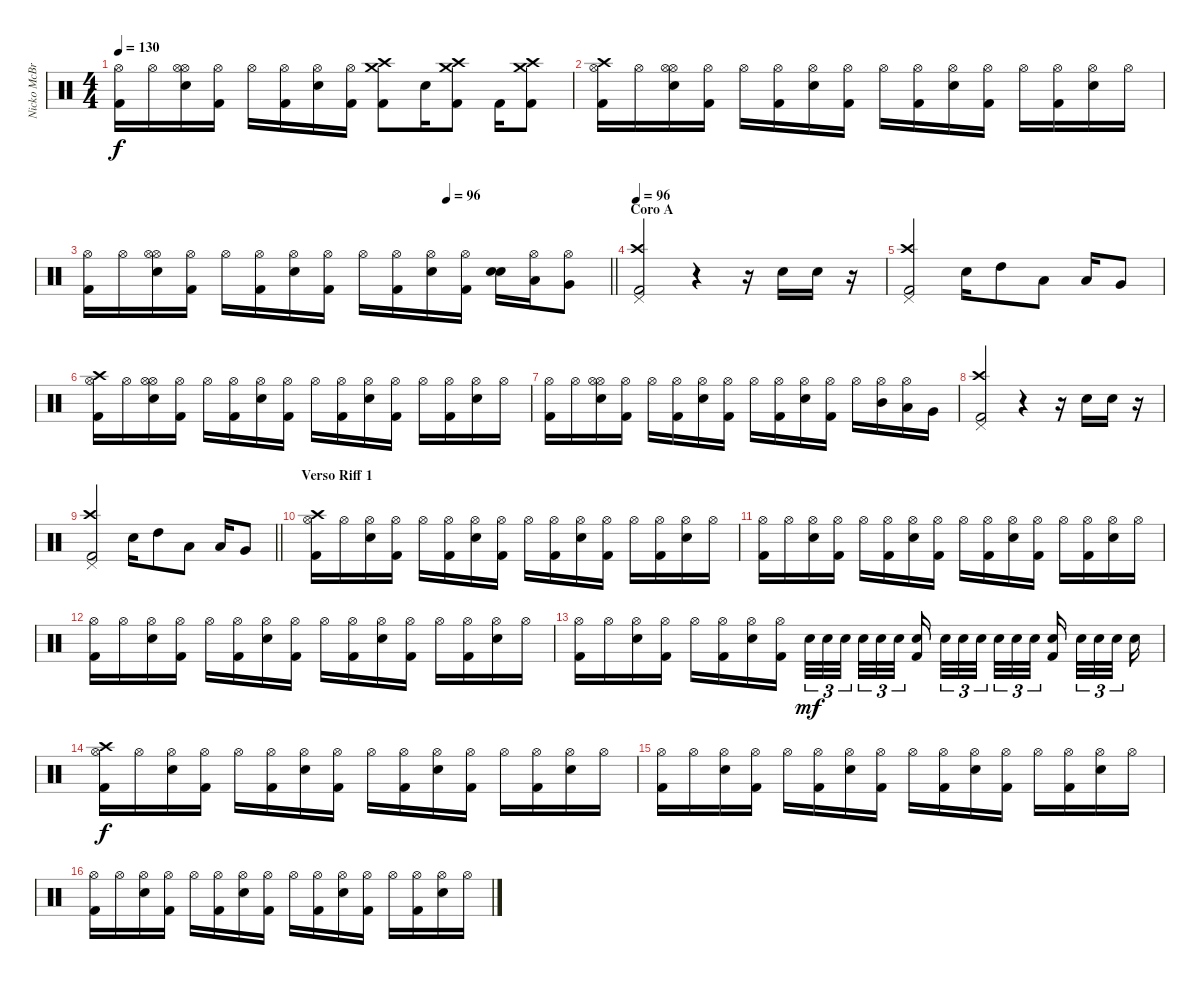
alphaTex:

\track ("Nicko McBrain" "Nicko McBr") {instrument percussion}
\staff {score}
\articulation defaults
\ts (4 4)
\tempo 130
\clef neutral
\ks c
("Kick (hit) 2" "Hi-Hat (open)").16{dy f} "Hi-Hat (open)".16 ("Snare (hit) 2" "Hi-Hat (open)" "Hi-Hat (open)").16 ("Kick (hit) 2" "Hi-Hat (open)").16 "Hi-Hat (open)".16 ("Kick (hit) 2" "Hi-Hat (open)").16 ("Snare (hit) 2" "Hi-Hat (open)").16 ("Kick (hit) 2" "Hi-Hat (open)").16 ("Crash medium (hit)" "Crash high (hit)" "Kick (hit) 2").8 "Snare (hit) 2".16 ("Crash medium (hit)" "Crash high (hit)" "Kick (hit) 2").8 "Kick (hit) 2".16 ("Crash medium (hit)" "Crash high (hit)" "Kick (hit) 2").8 |
("Kick (hit) 2" "Hi-Hat (open)" "Crash high (hit)").16 "Hi-Hat (open)".16 ("Snare (hit) 2" "Hi-Hat (open)" "Hi-Hat (open)").16 ("Kick (hit) 2" "Hi-Hat (open)").16 "Hi-Hat (open)".16 ("Kick (hit) 2" "Hi-Hat (open)").16 ("Snare (hit) 2" "Hi-Hat (open)").16 ("Kick (hit) 2" "Hi-Hat (open)").16 "Hi-Hat (open)".16 ("Kick (hit) 2" "Hi-Hat (open)").16 ("Snare (hit) 2" "Hi-Hat (open)").16 ("Kick (hit) 2" "Hi-Hat (open)").16 "Hi-Hat (open)".16 ("Kick (hit) 2" "Hi-Hat (open)").16 ("Snare (hit) 2" "Hi-Hat (open)").16 "Hi-Hat (open)".16 |
\tempo (96 0.6875)
\barLineRight lightlight
("Kick (hit) 2" "Hi-Hat (open)").16 "Hi-Hat (open)".16 ("Snare (hit) 2" "Hi-Hat (open)" "Hi-Hat (open)").16 ("Kick (hit) 2" "Hi-Hat (open)").16 "Hi-Hat (open)".16 ("Kick (hit) 2" "Hi-Hat (open)").16 ("Snare (hit) 2" "Hi-Hat (open)").16 ("Kick (hit) 2" "Hi-Hat (open)").16 "Hi-Hat (open)".16 ("Kick (hit) 2" "Hi-Hat (open)").16 ("Snare (hit) 2" "Hi-Hat (open)").16 ("Kick (hit) 2" "Hi-Hat (open)").16 ("Snare (hit) 2" "Snare (hit) 2").16 ("Low Tom (hit)" "Hi-Hat (open)").16 ("Very Low Tom (hit)" "Hi-Hat (open)").8 |
\section ("" "Coro A")
\tempo 96
("Kick (hit) 2" "Pedal Hi-Hat (hit)" "Crash high (hit)").2 r.4 r.16 "Snare (hit) 2".16 "Snare (hit) 2".16 r.16 |
("Kick (hit) 2" "Pedal Hi-Hat (hit)" "Crash high (hit)").2 "Snare (hit) 2".16 "High Tom (hit)".8 "Low Tom (hit)".8 "Low Tom (hit)".16 "Very Low Tom (hit)".8 |
("Kick (hit) 2" "Hi-Hat (open)" "Crash high (hit)").16 "Hi-Hat (open)".16 ("Snare (hit) 2" "Hi-Hat (open)" "Hi-Hat (open)").16 ("Kick (hit) 2" "Hi-Hat (open)").16 "Hi-Hat (open)".16 ("Kick (hit) 2" "Hi-Hat (open)").16 ("Snare (hit) 2" "Hi-Hat (open)").16 ("Kick (hit) 2" "Hi-Hat (open)").16 "Hi-Hat (open)".16 ("Kick (hit) 2" "Hi-Hat (open)").16 ("Snare (hit) 2" "Hi-Hat (open)").16 ("Kick (hit) 2" "Hi-Hat (open)").16 "Hi-Hat (open)".16 ("Kick (hit) 2" "Hi-Hat (open)").16 ("Snare (hit) 2" "Hi-Hat (open)").16 "Hi-Hat (open)".16 |
("Kick (hit) 2" "Hi-Hat (open)").16 "Hi-Hat (open)".16 ("Snare (hit) 2" "Hi-Hat (open)" "Hi-Hat (open)").16 ("Kick (hit) 2" "Hi-Hat (open)").16 "Hi-Hat (open)".16 ("Kick (hit) 2" "Hi-Hat (open)").16 ("Snare (hit) 2" "Hi-Hat (open)").16 ("Kick (hit) 2" "Hi-Hat (open)").16 "Hi-Hat (open)".16 ("Kick (hit) 2" "Hi-Hat (open)").16 ("Snare (hit) 2" "Hi-Hat (open)").16 ("Kick (hit) 2" "Hi-Hat (open)").16 "Hi-Hat (open)".16 ("Mid Tom (hit)" "Hi-Hat (open)").16 ("Low Tom (hit)" "Hi-Hat (open)").16 "Very Low Tom (hit)".16 |
("Kick (hit) 2" "Pedal Hi-Hat (hit)" "Crash high (hit)").2 r.4 r.16 "Snare (hit) 2".16 "Snare (hit) 2".16 r.16 |
\barLineRight lightlight
("Kick (hit) 2" "Pedal Hi-Hat (hit)" "Crash high (hit)").2 "Snare (hit) 2".16 "High Tom (hit)".8 "Low Tom (hit)".8 "Low Tom (hit)".16 "Very Low Tom (hit)".8 |
\section ("" "Verso Riff 1")
("Kick (hit) 2" "Hi-Hat (open)" "Crash high (hit)").16 "Hi-Hat (open)".16 ("Snare (hit) 2" "Hi-Hat (open)").16 ("Kick (hit) 2" "Hi-Hat (open)").16 "Hi-Hat (open)".16 ("Kick (hit) 2" "Hi-Hat (open)").16 ("Snare (hit) 2" "Hi-Hat (open)").16 ("Kick (hit) 2" "Hi-Hat (open)").16 "Hi-Hat (open)".16 ("Kick (hit) 2" "Hi-Hat (open)").16 ("Snare (hit) 2" "Hi-Hat (open)").16 ("Kick (hit) 2" "Hi-Hat (open)").16 "Hi-Hat (open)".16 ("Kick (hit) 2" "Hi-Hat (open)").16 ("Snare (hit) 2" "Hi-Hat (open)").16 "Hi-Hat (open)".16 |
("Kick (hit) 2" "Hi-Hat (open)").16 "Hi-Hat (open)".16 ("Snare (hit) 2" "Hi-Hat (open)").16 ("Kick (hit) 2" "Hi-Hat (open)").16 "Hi-Hat (open)".16 ("Kick (hit) 2" "Hi-Hat (open)").16 ("Snare (hit) 2" "Hi-Hat (open)").16 ("Kick (hit) 2" "Hi-Hat (open)").16 "Hi-Hat (open)".16 ("Kick (hit) 2" "Hi-Hat (open)").16 ("Snare (hit) 2" "Hi-Hat (open)").16 ("Kick (hit) 2" "Hi-Hat (open)").16 "Hi-Hat (open)".16 ("Kick (hit) 2" "Hi-Hat (open)").16 ("Snare (hit) 2" "Hi-Hat (open)").16 "Hi-Hat (open)".16 |
("Kick (hit) 2" "Hi-Hat (open)").16 "Hi-Hat (open)".16 ("Snare (hit) 2" "Hi-Hat (open)").16 ("Kick (hit) 2" "Hi-Hat (open)").16 "Hi-Hat (open)".16 ("Kick (hit) 2" "Hi-Hat (open)").16 ("Snare (hit) 2" "Hi-Hat (open)").16 ("Kick (hit) 2" "Hi-Hat (open)").16 "Hi-Hat (open)".16 ("Kick (hit) 2" "Hi-Hat (open)").16 ("Snare (hit) 2" "Hi-Hat (open)").16 ("Kick (hit) 2" "Hi-Hat (open)").16 "Hi-Hat (open)".16 ("Kick (hit) 2" "Hi-Hat (open)").16 ("Snare (hit) 2" "Hi-Hat (open)").16 "Hi-Hat (open)".16 |
("Kick (hit) 2" "Hi-Hat (open)").16 "Hi-Hat (open)".16 ("Snare (hit) 2" "Hi-Hat (open)").16 ("Kick (hit) 2" "Hi-Hat (open)").16 "Hi-Hat (open)".16 ("Kick (hit) 2" "Hi-Hat (open)").16 ("Snare (hit) 2" "Hi-Hat (open)").16 ("Kick (hit) 2" "Hi-Hat (open)").16 "Snare (hit) 2".32{tu (3 2) dy mf} "Snare (hit) 2".32{tu (3 2)} "Snare (hit) 2".32{tu (3 2) beam splitsecondary} "Snare (hit) 2".32{tu (3 2)} "Snare (hit) 2".32{tu (3 2)} "Snare (hit) 2".32{tu (3 2) beam splitsecondary} ("Snare (hit) 2" "Kick (hit) 2").16{beam splitsecondary} "Snare (hit) 2".32{tu (3 2)} "Snare (hit) 2".32{tu (3 2)} "Snare (hit) 2".32{tu (3 2)} "Snare (hit) 2".32{tu (3 2)} "Snare (hit) 2".32{tu (3 2)} "Snare (hit) 2".32{tu (3 2) beam splitsecondary} ("Snare (hit) 2" "Kick (hit) 2").16{beam splitsecondary} "Snare (hit) 2".32{tu (3 2)} "Snare (hit) 2".32{tu (3 2)} "Snare (hit) 2".32{tu (3 2) beam splitsecondary} "Snare (hit) 2".16 |
("Kick (hit) 2" "Hi-Hat (open)" "Crash high (hit)").16{dy f} "Hi-Hat (open)".16 ("Snare (hit) 2" "Hi-Hat (open)").16 ("Kick (hit) 2" "Hi-Hat (open)").16 "Hi-Hat (open)".16 ("Kick (hit) 2" "Hi-Hat (open)").16 ("Snare (hit) 2" "Hi-Hat (open)").16 ("Kick (hit) 2" "Hi-Hat (open)").16 "Hi-Hat (open)".16 ("Kick (hit) 2" "Hi-Hat (open)").16 ("Snare (hit) 2" "Hi-Hat (open)").16 ("Kick (hit) 2" "Hi-Hat (open)").16 "Hi-Hat (open)".16 ("Kick (hit) 2" "Hi-Hat (open)").16 ("Snare (hit) 2" "Hi-Hat (open)").16 "Hi-Hat (open)".16 |
("Kick (hit) 2" "Hi-Hat (open)").16 "Hi-Hat (open)".16 ("Snare (hit) 2" "Hi-Hat (open)").16 ("Kick (hit) 2" "Hi-Hat (open)").16 "Hi-Hat (open)".16 ("Kick (hit) 2" "Hi-Hat (open)").16 ("Snare (hit) 2" "Hi-Hat (open)").16 ("Kick (hit) 2" "Hi-Hat (open)").16 "Hi-Hat (open)".16 ("Kick (hit) 2" "Hi-Hat (open)").16 ("Snare (hit) 2" "Hi-Hat (open)").16 ("Kick (hit) 2" "Hi-Hat (open)").16 "Hi-Hat (open)".16 ("Kick (hit) 2" "Hi-Hat (open)").16 ("Snare (hit) 2" "Hi-Hat (open)").16 "Hi-Hat (open)".16 |
("Kick (hit) 2" "Hi-Hat (open)").16 "Hi-Hat (open)".16 ("Snare (hit) 2" "Hi-Hat (open)").16 ("Kick (hit) 2" "Hi-Hat (open)").16 "Hi-Hat (open)".16 ("Kick (hit) 2" "Hi-Hat (open)").16 ("Snare (hit) 2" "Hi-Hat (open)").16 ("Kick (hit) 2" "Hi-Hat (open)").16 "Hi-Hat (open)".16 ("Kick (hit) 2" "Hi-Hat (open)").16 ("Snare (hit) 2" "Hi-Hat (open)").16 ("Kick (hit) 2" "Hi-Hat (open)").16 "Hi-Hat (open)".16 ("Kick (hit) 2" "Hi-Hat (open)").16 ("Snare (hit) 2" "Hi-Hat (open)").16 "Hi-Hat (open)".16
